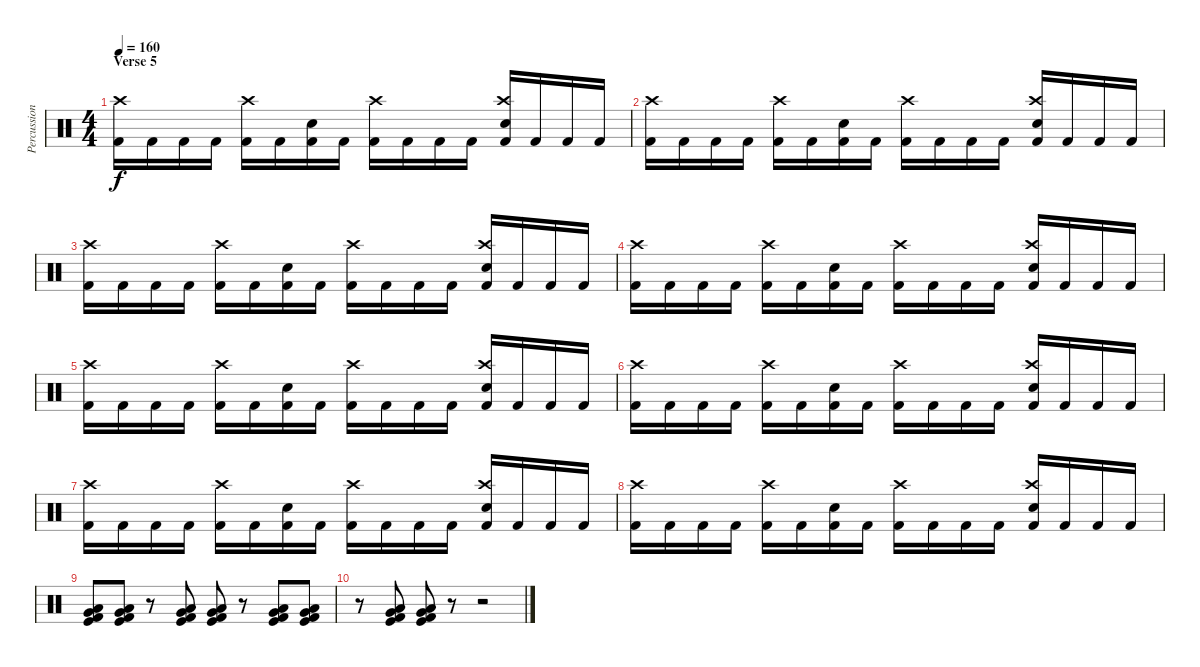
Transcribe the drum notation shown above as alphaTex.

\track ("Percussion" "Percussion") {instrument percussion}
\staff {score}
\articulation defaults
\ts (4 4)
\section ("" "Verse 5")
\tempo 160
\clef neutral
\ks c
("Kick (hit) 2" "Crash high (hit)").16{dy f} "Kick (hit) 2".16 "Kick (hit) 2".16 "Kick (hit) 2".16 ("Kick (hit) 2" "Crash high (hit)").16 "Kick (hit) 2".16 ("Kick (hit) 2" "Snare (hit) 2").16 "Kick (hit) 2".16 ("Kick (hit) 2" "Crash high (hit)").16 "Kick (hit) 2".16 "Kick (hit) 2".16 "Kick (hit) 2".16 ("Kick (hit) 2" "Crash high (hit)" "Snare (hit) 2").16 "Kick (hit) 2".16 "Kick (hit) 2".16 "Kick (hit) 2".16 |
("Kick (hit) 2" "Crash high (hit)").16 "Kick (hit) 2".16 "Kick (hit) 2".16 "Kick (hit) 2".16 ("Kick (hit) 2" "Crash high (hit)").16 "Kick (hit) 2".16 ("Kick (hit) 2" "Snare (hit) 2").16 "Kick (hit) 2".16 ("Kick (hit) 2" "Crash high (hit)").16 "Kick (hit) 2".16 "Kick (hit) 2".16 "Kick (hit) 2".16 ("Kick (hit) 2" "Crash high (hit)" "Snare (hit) 2").16 "Kick (hit) 2".16 "Kick (hit) 2".16 "Kick (hit) 2".16 |
("Kick (hit) 2" "Crash high (hit)").16 "Kick (hit) 2".16 "Kick (hit) 2".16 "Kick (hit) 2".16 ("Kick (hit) 2" "Crash high (hit)").16 "Kick (hit) 2".16 ("Kick (hit) 2" "Snare (hit) 2").16 "Kick (hit) 2".16 ("Kick (hit) 2" "Crash high (hit)").16 "Kick (hit) 2".16 "Kick (hit) 2".16 "Kick (hit) 2".16 ("Kick (hit) 2" "Crash high (hit)" "Snare (hit) 2").16 "Kick (hit) 2".16 "Kick (hit) 2".16 "Kick (hit) 2".16 |
("Kick (hit) 2" "Crash high (hit)").16 "Kick (hit) 2".16 "Kick (hit) 2".16 "Kick (hit) 2".16 ("Kick (hit) 2" "Crash high (hit)").16 "Kick (hit) 2".16 ("Kick (hit) 2" "Snare (hit) 2").16 "Kick (hit) 2".16 ("Kick (hit) 2" "Crash high (hit)").16 "Kick (hit) 2".16 "Kick (hit) 2".16 "Kick (hit) 2".16 ("Kick (hit) 2" "Crash high (hit)" "Snare (hit) 2").16 "Kick (hit) 2".16 "Kick (hit) 2".16 "Kick (hit) 2".16 |
("Kick (hit) 2" "Crash high (hit)").16 "Kick (hit) 2".16 "Kick (hit) 2".16 "Kick (hit) 2".16 ("Kick (hit) 2" "Crash high (hit)").16 "Kick (hit) 2".16 ("Kick (hit) 2" "Snare (hit) 2").16 "Kick (hit) 2".16 ("Kick (hit) 2" "Crash high (hit)").16 "Kick (hit) 2".16 "Kick (hit) 2".16 "Kick (hit) 2".16 ("Kick (hit) 2" "Crash high (hit)" "Snare (hit) 2").16 "Kick (hit) 2".16 "Kick (hit) 2".16 "Kick (hit) 2".16 |
("Kick (hit) 2" "Crash high (hit)").16 "Kick (hit) 2".16 "Kick (hit) 2".16 "Kick (hit) 2".16 ("Kick (hit) 2" "Crash high (hit)").16 "Kick (hit) 2".16 ("Kick (hit) 2" "Snare (hit) 2").16 "Kick (hit) 2".16 ("Kick (hit) 2" "Crash high (hit)").16 "Kick (hit) 2".16 "Kick (hit) 2".16 "Kick (hit) 2".16 ("Kick (hit) 2" "Crash high (hit)" "Snare (hit) 2").16 "Kick (hit) 2".16 "Kick (hit) 2".16 "Kick (hit) 2".16 |
("Kick (hit) 2" "Crash high (hit)").16 "Kick (hit) 2".16 "Kick (hit) 2".16 "Kick (hit) 2".16 ("Kick (hit) 2" "Crash high (hit)").16 "Kick (hit) 2".16 ("Kick (hit) 2" "Snare (hit) 2").16 "Kick (hit) 2".16 ("Kick (hit) 2" "Crash high (hit)").16 "Kick (hit) 2".16 "Kick (hit) 2".16 "Kick (hit) 2".16 ("Kick (hit) 2" "Crash high (hit)" "Snare (hit) 2").16 "Kick (hit) 2".16 "Kick (hit) 2".16 "Kick (hit) 2".16 |
("Kick (hit) 2" "Crash high (hit)").16 "Kick (hit) 2".16 "Kick (hit) 2".16 "Kick (hit) 2".16 ("Kick (hit) 2" "Crash high (hit)").16 "Kick (hit) 2".16 ("Kick (hit) 2" "Snare (hit) 2").16 "Kick (hit) 2".16 ("Kick (hit) 2" "Crash high (hit)").16 "Kick (hit) 2".16 "Kick (hit) 2".16 "Kick (hit) 2".16 ("Kick (hit) 2" "Crash high (hit)" "Snare (hit) 2").16 "Kick (hit) 2".16 "Kick (hit) 2".16 "Kick (hit) 2".16 |
("Low Floor Tom (hit)" "Very Low Tom (hit)" "Kick (hit) 2" "Kick (hit)").8 ("Low Floor Tom (hit)" "Very Low Tom (hit)" "Kick (hit) 2" "Kick (hit)").8 r.8 ("Low Floor Tom (hit)" "Very Low Tom (hit)" "Kick (hit) 2" "Kick (hit)").8 ("Low Floor Tom (hit)" "Very Low Tom (hit)" "Kick (hit) 2" "Kick (hit)").8 r.8 ("Low Floor Tom (hit)" "Very Low Tom (hit)" "Kick (hit) 2" "Kick (hit)").8 ("Low Floor Tom (hit)" "Very Low Tom (hit)" "Kick (hit) 2" "Kick (hit)").8 |
r.8 ("Low Floor Tom (hit)" "Very Low Tom (hit)" "Kick (hit) 2" "Kick (hit)").8 ("Low Floor Tom (hit)" "Very Low Tom (hit)" "Kick (hit) 2" "Kick (hit)").8 r.8 r.2
